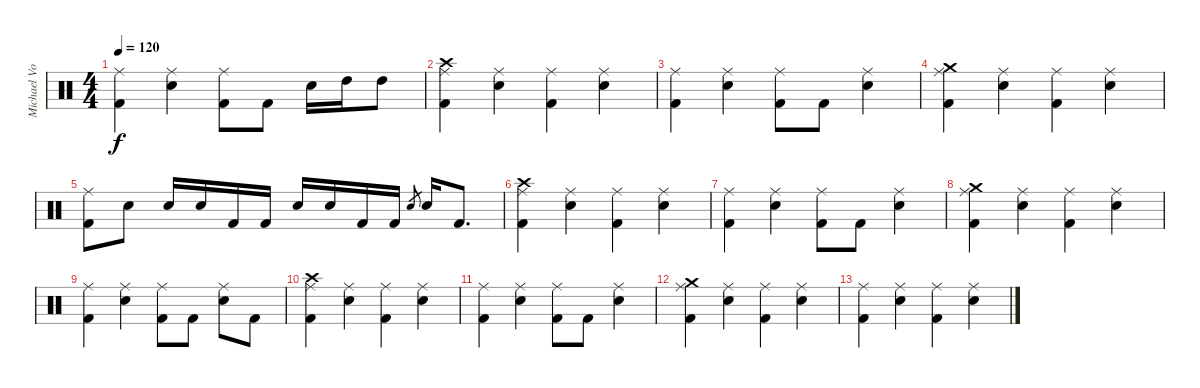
\track ("Michael Von Knorring" "Michael Vo") {instrument percussion}
\staff {score}
\articulation defaults
\ts (4 4)
\tempo 120
\clef neutral
\ks c
("Ride (middle)" "Kick (hit) 2").4{dy f} ("Ride (middle)" "Snare (hit) 2").4 ("Ride (middle)" "Kick (hit) 2").8 "Kick (hit) 2".8 "Snare (hit) 2".16 "High Tom (hit)".16 "High Tom (hit)".8 |
("Crash high (hit)" "Ride (middle)" "Kick (hit) 2").4 ("Ride (middle)" "Snare (hit) 2").4 ("Ride (middle)" "Kick (hit) 2").4 ("Ride (middle)" "Snare (hit) 2").4 |
("Ride (middle)" "Kick (hit) 2").4 ("Ride (middle)" "Snare (hit) 2").4 ("Ride (middle)" "Kick (hit) 2").8 "Kick (hit) 2".8 ("Ride (middle)" "Snare (hit) 2").4 |
("Crash medium (hit)" "Ride (middle)" "Kick (hit) 2").4 ("Ride (middle)" "Snare (hit) 2").4 ("Ride (middle)" "Kick (hit) 2").4 ("Ride (middle)" "Snare (hit) 2").4 |
("Ride (middle)" "Kick (hit) 2").8 "Snare (hit) 2".8 "Snare (hit) 2".16 "Snare (hit) 2".16 "Kick (hit) 2".16 "Kick (hit) 2".16 "Snare (hit) 2".16 "Snare (hit) 2".16 "Kick (hit) 2".16 "Kick (hit) 2".16 "Snare (hit) 2".8{gr} "Snare (hit) 2".16 "Kick (hit) 2".8{d} |
("Crash high (hit)" "Ride (middle)" "Kick (hit) 2").4 ("Ride (middle)" "Snare (hit) 2").4 ("Ride (middle)" "Kick (hit) 2").4 ("Ride (middle)" "Snare (hit) 2").4 |
("Ride (middle)" "Kick (hit) 2").4 ("Ride (middle)" "Snare (hit) 2").4 ("Ride (middle)" "Kick (hit) 2").8 "Kick (hit) 2".8 ("Ride (middle)" "Snare (hit) 2").4 |
("Crash medium (hit)" "Ride (middle)" "Kick (hit) 2").4 ("Ride (middle)" "Snare (hit) 2").4 ("Ride (middle)" "Kick (hit) 2").4 ("Ride (middle)" "Snare (hit) 2").4 |
("Ride (middle)" "Kick (hit) 2").4 ("Ride (middle)" "Snare (hit) 2").4 ("Ride (middle)" "Kick (hit) 2").8 "Kick (hit) 2".8 ("Ride (middle)" "Snare (hit) 2").8 "Kick (hit) 2".8 |
("Crash high (hit)" "Ride (middle)" "Kick (hit) 2").4 ("Ride (middle)" "Snare (hit) 2").4 ("Ride (middle)" "Kick (hit) 2").4 ("Ride (middle)" "Snare (hit) 2").4 |
("Ride (middle)" "Kick (hit) 2").4 ("Ride (middle)" "Snare (hit) 2").4 ("Ride (middle)" "Kick (hit) 2").8 "Kick (hit) 2".8 ("Ride (middle)" "Snare (hit) 2").4 |
("Crash medium (hit)" "Ride (middle)" "Kick (hit) 2").4 ("Ride (middle)" "Snare (hit) 2").4 ("Ride (middle)" "Kick (hit) 2").4 ("Ride (middle)" "Snare (hit) 2").4 |
("Ride (middle)" "Kick (hit) 2").4 ("Ride (middle)" "Snare (hit) 2").4 ("Ride (middle)" "Kick (hit) 2").4 ("Ride (middle)" "Snare (hit) 2").4
